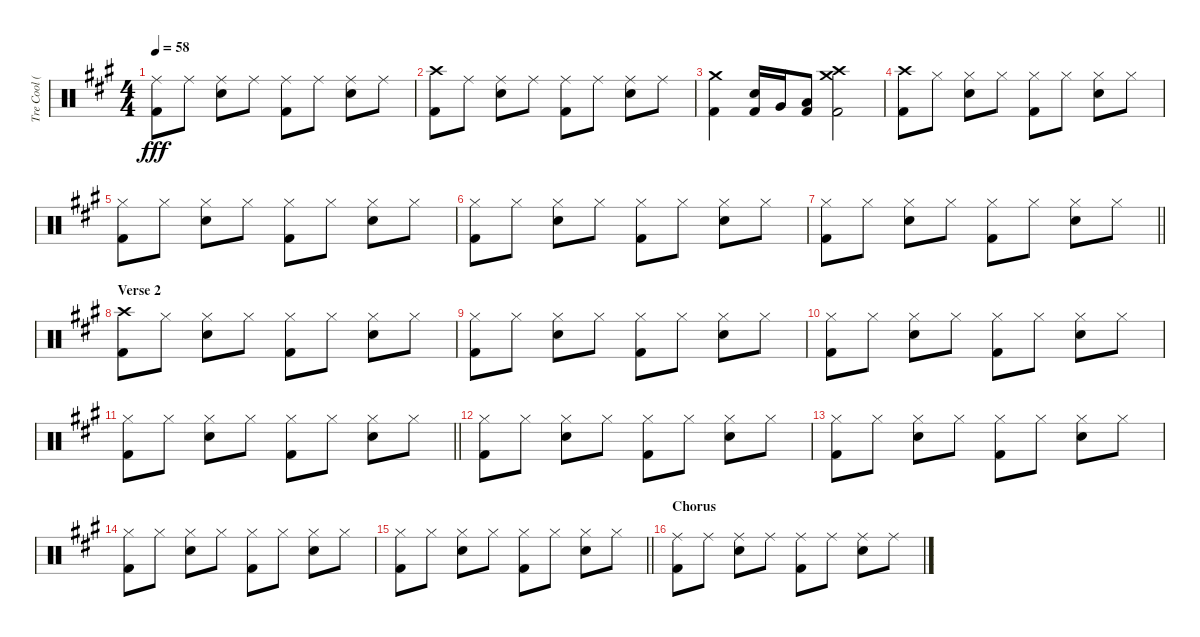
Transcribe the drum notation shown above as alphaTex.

\track ("Tre Cool (Drums)" "Tre Cool (") {instrument percussion}
\staff {score}
\articulation defaults
\ts (4 4)
\tempo 58
\clef neutral
\ks a
("Ride (middle)" "Kick (hit) 2").8{dy fff} "Ride (middle)".8 ("Ride (middle)" "Electric Snare (hit)").8 "Ride (middle)".8 ("Ride (middle)" "Kick (hit) 2").8 "Ride (middle)".8 ("Ride (middle)" "Electric Snare (hit)").8 "Ride (middle)".8 |
("Crash high (hit)" "Kick (hit) 2").8 "Ride (middle)".8 ("Ride (middle)" "Electric Snare (hit)").8 "Ride (middle)".8 ("Ride (middle)" "Kick (hit) 2").8 "Ride (middle)".8 ("Ride (middle)" "Electric Snare (hit)").8 "Ride (middle)".8 |
("Crash medium (hit)" "Kick (hit) 2").4 ("Electric Snare (hit)" "Kick (hit) 2").16 "Very Low Tom (hit)".16 ("Low Tom (hit)" "Kick (hit) 2").8 ("Crash high (hit)" "Crash medium (hit)" "Kick (hit) 2").2 |
("Crash high (hit)" "Kick (hit) 2").8 "Hi-Hat (closed)".8 ("Hi-Hat (closed)" "Electric Snare (hit)").8 "Hi-Hat (closed)".8 ("Hi-Hat (closed)" "Kick (hit) 2").8 "Hi-Hat (closed)".8 ("Hi-Hat (closed)" "Electric Snare (hit)").8 "Hi-Hat (closed)".8 |
("Hi-Hat (closed)" "Kick (hit) 2").8 "Hi-Hat (closed)".8 ("Hi-Hat (closed)" "Electric Snare (hit)").8 "Hi-Hat (closed)".8 ("Hi-Hat (closed)" "Kick (hit) 2").8 "Hi-Hat (closed)".8 ("Hi-Hat (closed)" "Electric Snare (hit)").8 "Hi-Hat (closed)".8 |
("Hi-Hat (closed)" "Kick (hit) 2").8 "Hi-Hat (closed)".8 ("Hi-Hat (closed)" "Electric Snare (hit)").8 "Hi-Hat (closed)".8 ("Hi-Hat (closed)" "Kick (hit) 2").8 "Hi-Hat (closed)".8 ("Hi-Hat (closed)" "Electric Snare (hit)").8 "Hi-Hat (closed)".8 |
\barLineRight lightlight
("Hi-Hat (closed)" "Kick (hit) 2").8 "Hi-Hat (closed)".8 ("Hi-Hat (closed)" "Electric Snare (hit)").8 "Hi-Hat (closed)".8 ("Hi-Hat (closed)" "Kick (hit) 2").8 "Hi-Hat (closed)".8 ("Hi-Hat (closed)" "Electric Snare (hit)").8 "Hi-Hat (closed)".8 |
\section ("" "Verse 2")
("Crash high (hit)" "Kick (hit) 2").8 "Hi-Hat (closed)".8 ("Hi-Hat (closed)" "Electric Snare (hit)").8 "Hi-Hat (closed)".8 ("Hi-Hat (closed)" "Kick (hit) 2").8 "Hi-Hat (closed)".8 ("Hi-Hat (closed)" "Electric Snare (hit)").8 "Hi-Hat (closed)".8 |
("Hi-Hat (closed)" "Kick (hit) 2").8 "Hi-Hat (closed)".8 ("Hi-Hat (closed)" "Electric Snare (hit)").8 "Hi-Hat (closed)".8 ("Hi-Hat (closed)" "Kick (hit) 2").8 "Hi-Hat (closed)".8 ("Hi-Hat (closed)" "Electric Snare (hit)").8 "Hi-Hat (closed)".8 |
("Hi-Hat (closed)" "Kick (hit) 2").8 "Hi-Hat (closed)".8 ("Hi-Hat (closed)" "Electric Snare (hit)").8 "Hi-Hat (closed)".8 ("Hi-Hat (closed)" "Kick (hit) 2").8 "Hi-Hat (closed)".8 ("Hi-Hat (closed)" "Electric Snare (hit)").8 "Hi-Hat (closed)".8 |
\barLineRight lightlight
("Hi-Hat (closed)" "Kick (hit) 2").8 "Hi-Hat (closed)".8 ("Hi-Hat (closed)" "Electric Snare (hit)").8 "Hi-Hat (closed)".8 ("Hi-Hat (closed)" "Kick (hit) 2").8 "Hi-Hat (closed)".8 ("Hi-Hat (closed)" "Electric Snare (hit)").8 "Hi-Hat (closed)".8 |
("Hi-Hat (closed)" "Kick (hit) 2").8 "Hi-Hat (closed)".8 ("Hi-Hat (closed)" "Electric Snare (hit)").8 "Hi-Hat (closed)".8 ("Hi-Hat (closed)" "Kick (hit) 2").8 "Hi-Hat (closed)".8 ("Hi-Hat (closed)" "Electric Snare (hit)").8 "Hi-Hat (closed)".8 |
("Hi-Hat (closed)" "Kick (hit) 2").8 "Hi-Hat (closed)".8 ("Hi-Hat (closed)" "Electric Snare (hit)").8 "Hi-Hat (closed)".8 ("Hi-Hat (closed)" "Kick (hit) 2").8 "Hi-Hat (closed)".8 ("Hi-Hat (closed)" "Electric Snare (hit)").8 "Hi-Hat (closed)".8 |
("Hi-Hat (closed)" "Kick (hit) 2").8 "Hi-Hat (closed)".8 ("Hi-Hat (closed)" "Electric Snare (hit)").8 "Hi-Hat (closed)".8 ("Hi-Hat (closed)" "Kick (hit) 2").8 "Hi-Hat (closed)".8 ("Hi-Hat (closed)" "Electric Snare (hit)").8 "Hi-Hat (closed)".8 |
\barLineRight lightlight
("Hi-Hat (closed)" "Kick (hit) 2").8 "Hi-Hat (closed)".8 ("Hi-Hat (closed)" "Electric Snare (hit)").8 "Hi-Hat (closed)".8 ("Hi-Hat (closed)" "Kick (hit) 2").8 "Hi-Hat (closed)".8 ("Hi-Hat (closed)" "Electric Snare (hit)").8 "Hi-Hat (closed)".8 |
\section ("" "Chorus")
("Ride (middle)" "Kick (hit) 2").8 "Ride (middle)".8 ("Ride (middle)" "Electric Snare (hit)").8 "Ride (middle)".8 ("Ride (middle)" "Kick (hit) 2").8 "Ride (middle)".8 ("Ride (middle)" "Electric Snare (hit)").8 "Ride (middle)".8
